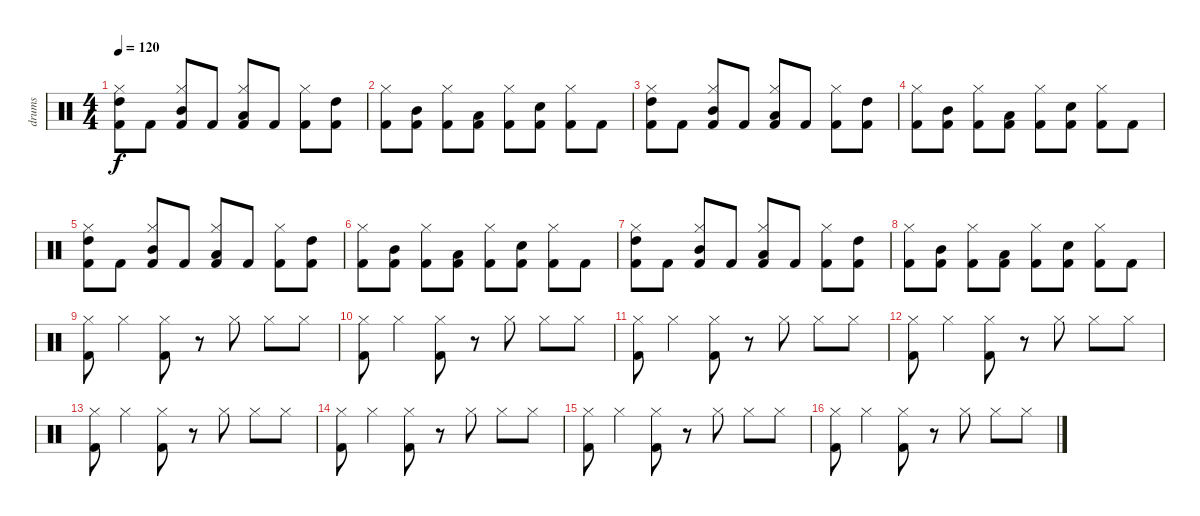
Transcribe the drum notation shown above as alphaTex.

\track ("drums" "drums") {instrument percussion}
\staff {score}
\articulation defaults
\ts (4 4)
\tempo 120
\clef neutral
\ks c
("Kick (hit) 2" "High Tom (hit)" "Hi-Hat (closed)").8{dy f} "Kick (hit) 2".8 ("Kick (hit) 2" "Mid Tom (hit)" "Hi-Hat (closed)").8 "Kick (hit) 2".8 ("Kick (hit) 2" "Low Tom (hit)" "Hi-Hat (closed)").8 "Kick (hit) 2".8 ("Kick (hit) 2" "Hi-Hat (closed)").8 ("Kick (hit) 2" "High Tom (hit)").8 |
("Kick (hit) 2" "Hi-Hat (closed)").8 ("Kick (hit) 2" "Mid Tom (hit)").8 ("Kick (hit) 2" "Hi-Hat (closed)").8 ("Kick (hit) 2" "Low Tom (hit)").8 ("Kick (hit) 2" "Hi-Hat (closed)").8 ("Snare (hit) 2" "Kick (hit) 2").8 ("Kick (hit) 2" "Hi-Hat (closed)").8 "Kick (hit) 2".8 |
("Kick (hit) 2" "High Tom (hit)" "Hi-Hat (closed)").8 "Kick (hit) 2".8 ("Kick (hit) 2" "Mid Tom (hit)" "Hi-Hat (closed)").8 "Kick (hit) 2".8 ("Kick (hit) 2" "Low Tom (hit)" "Hi-Hat (closed)").8 "Kick (hit) 2".8 ("Kick (hit) 2" "Hi-Hat (closed)").8 ("Kick (hit) 2" "High Tom (hit)").8 |
("Kick (hit) 2" "Hi-Hat (closed)").8 ("Kick (hit) 2" "Mid Tom (hit)").8 ("Kick (hit) 2" "Hi-Hat (closed)").8 ("Kick (hit) 2" "Low Tom (hit)").8 ("Kick (hit) 2" "Hi-Hat (closed)").8 ("Snare (hit) 2" "Kick (hit) 2").8 ("Kick (hit) 2" "Hi-Hat (closed)").8 "Kick (hit) 2".8 |
("Kick (hit) 2" "High Tom (hit)" "Hi-Hat (closed)").8 "Kick (hit) 2".8 ("Kick (hit) 2" "Mid Tom (hit)" "Hi-Hat (closed)").8 "Kick (hit) 2".8 ("Kick (hit) 2" "Low Tom (hit)" "Hi-Hat (closed)").8 "Kick (hit) 2".8 ("Kick (hit) 2" "Hi-Hat (closed)").8 ("Kick (hit) 2" "High Tom (hit)").8 |
("Kick (hit) 2" "Hi-Hat (closed)").8 ("Kick (hit) 2" "Mid Tom (hit)").8 ("Kick (hit) 2" "Hi-Hat (closed)").8 ("Kick (hit) 2" "Low Tom (hit)").8 ("Kick (hit) 2" "Hi-Hat (closed)").8 ("Snare (hit) 2" "Kick (hit) 2").8 ("Kick (hit) 2" "Hi-Hat (closed)").8 "Kick (hit) 2".8 |
("Kick (hit) 2" "High Tom (hit)" "Hi-Hat (closed)").8 "Kick (hit) 2".8 ("Kick (hit) 2" "Mid Tom (hit)" "Hi-Hat (closed)").8 "Kick (hit) 2".8 ("Kick (hit) 2" "Low Tom (hit)" "Hi-Hat (closed)").8 "Kick (hit) 2".8 ("Kick (hit) 2" "Hi-Hat (closed)").8 ("Kick (hit) 2" "High Tom (hit)").8 |
("Kick (hit) 2" "Hi-Hat (closed)").8 ("Kick (hit) 2" "Mid Tom (hit)").8 ("Kick (hit) 2" "Hi-Hat (closed)").8 ("Kick (hit) 2" "Low Tom (hit)").8 ("Kick (hit) 2" "Hi-Hat (closed)").8 ("Snare (hit) 2" "Kick (hit) 2").8 ("Kick (hit) 2" "Hi-Hat (closed)").8 "Kick (hit) 2".8 |
("Kick (hit) 2" "Hi-Hat (closed)").8 "Hi-Hat (closed)".4 ("Kick (hit) 2" "Hi-Hat (closed)").8 r.8 "Hi-Hat (closed)".8 "Hi-Hat (closed)".8 "Hi-Hat (closed)".8 |
("Kick (hit) 2" "Hi-Hat (closed)").8 "Hi-Hat (closed)".4 ("Kick (hit) 2" "Hi-Hat (closed)").8 r.8 "Hi-Hat (closed)".8 "Hi-Hat (closed)".8 "Hi-Hat (closed)".8 |
("Kick (hit) 2" "Hi-Hat (closed)").8 "Hi-Hat (closed)".4 ("Kick (hit) 2" "Hi-Hat (closed)").8 r.8 "Hi-Hat (closed)".8 "Hi-Hat (closed)".8 "Hi-Hat (closed)".8 |
("Kick (hit) 2" "Hi-Hat (closed)").8 "Hi-Hat (closed)".4 ("Kick (hit) 2" "Hi-Hat (closed)").8 r.8 "Hi-Hat (closed)".8 "Hi-Hat (closed)".8 "Hi-Hat (closed)".8 |
("Kick (hit) 2" "Hi-Hat (closed)").8 "Hi-Hat (closed)".4 ("Kick (hit) 2" "Hi-Hat (closed)").8 r.8 "Hi-Hat (closed)".8 "Hi-Hat (closed)".8 "Hi-Hat (closed)".8 |
("Kick (hit) 2" "Hi-Hat (closed)").8 "Hi-Hat (closed)".4 ("Kick (hit) 2" "Hi-Hat (closed)").8 r.8 "Hi-Hat (closed)".8 "Hi-Hat (closed)".8 "Hi-Hat (closed)".8 |
("Kick (hit) 2" "Hi-Hat (closed)").8 "Hi-Hat (closed)".4 ("Kick (hit) 2" "Hi-Hat (closed)").8 r.8 "Hi-Hat (closed)".8 "Hi-Hat (closed)".8 "Hi-Hat (closed)".8 |
("Kick (hit) 2" "Hi-Hat (closed)").8 "Hi-Hat (closed)".4 ("Kick (hit) 2" "Hi-Hat (closed)").8 r.8 "Hi-Hat (closed)".8 "Hi-Hat (closed)".8 "Hi-Hat (closed)".8
